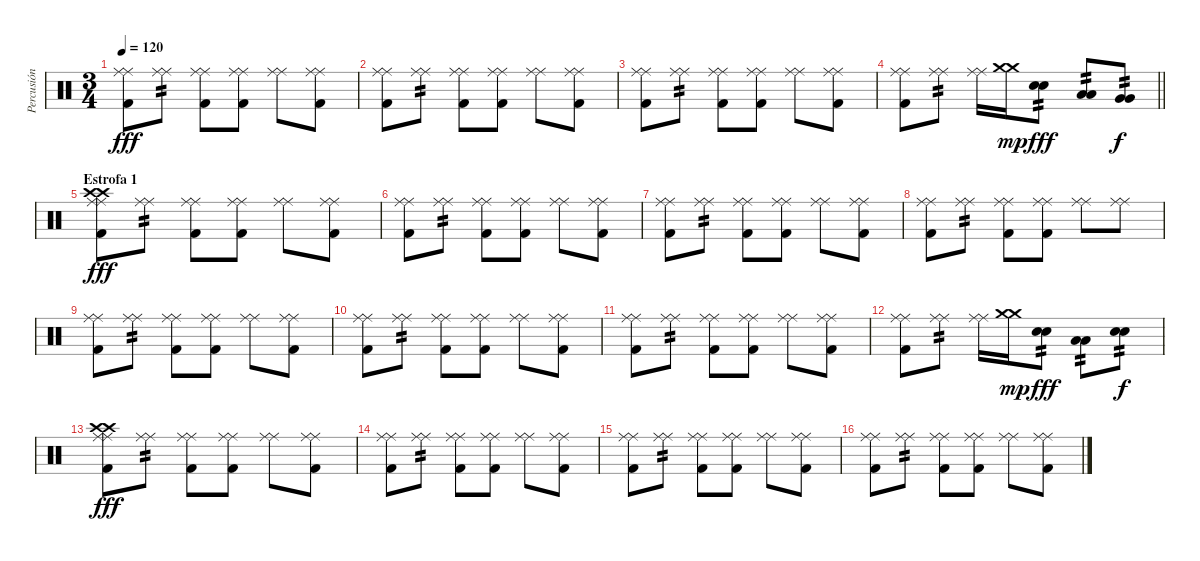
\track ("Percusión" "Percusión") {instrument percussion}
\staff {score}
\articulation defaults
\ts (3 4)
\tempo 120
\clef neutral
\ks c
("Ride (middle)" "Ride (middle)" "Kick (hit) 2").8{dy fff} ("Ride (middle)" "Ride (middle)").8{tp 2} ("Ride (middle)" "Ride (middle)" "Kick (hit) 2").8 ("Ride (middle)" "Ride (middle)" "Kick (hit) 2").8 ("Ride (middle)" "Ride (middle)").8 ("Ride (middle)" "Ride (middle)" "Kick (hit) 2").8 |
("Ride (middle)" "Ride (middle)" "Kick (hit) 2").8 ("Ride (middle)" "Ride (middle)").8{tp 2} ("Ride (middle)" "Ride (middle)" "Kick (hit) 2").8 ("Ride (middle)" "Ride (middle)" "Kick (hit) 2").8 ("Ride (middle)" "Ride (middle)").8 ("Ride (middle)" "Ride (middle)" "Kick (hit) 2").8 |
("Ride (middle)" "Ride (middle)" "Kick (hit) 2").8 ("Ride (middle)" "Ride (middle)").8{tp 2} ("Ride (middle)" "Ride (middle)" "Kick (hit) 2").8 ("Ride (middle)" "Ride (middle)" "Kick (hit) 2").8 ("Ride (middle)" "Ride (middle)").8 ("Ride (middle)" "Ride (middle)" "Kick (hit) 2").8 |
\barLineRight lightlight
("Ride (middle)" "Ride (middle)" "Kick (hit) 2").8 ("Ride (middle)" "Ride (middle)").8{tp 2} ("Ride (middle)" "Ride (middle)").16 ("Crash medium (hit)" "Crash medium (hit)").16{dy mp} ("Electric Snare (hit)" "Electric Snare (hit)").8{tp 2 dy fff} ("Low Tom (hit)" "Low Tom (hit)").8{tp 2} ("Very Low Tom (hit)" "Very Low Tom (hit)").8{tp 2 dy f} |
\section ("" "Estrofa 1")
("Ride (middle)" "Ride (middle)" "Crash high (hit)" "Crash high (hit)" "Kick (hit) 2").8{dy fff} ("Ride (middle)" "Ride (middle)").8{tp 2} ("Ride (middle)" "Ride (middle)" "Kick (hit) 2").8 ("Ride (middle)" "Ride (middle)" "Kick (hit) 2").8 ("Ride (middle)" "Ride (middle)").8 ("Ride (middle)" "Ride (middle)" "Kick (hit) 2").8 |
("Ride (middle)" "Ride (middle)" "Kick (hit) 2").8 ("Ride (middle)" "Ride (middle)").8{tp 2} ("Ride (middle)" "Ride (middle)" "Kick (hit) 2").8 ("Ride (middle)" "Ride (middle)" "Kick (hit) 2").8 ("Ride (middle)" "Ride (middle)").8 ("Ride (middle)" "Ride (middle)" "Kick (hit) 2").8 |
("Ride (middle)" "Ride (middle)" "Kick (hit) 2").8 ("Ride (middle)" "Ride (middle)").8{tp 2} ("Ride (middle)" "Ride (middle)" "Kick (hit) 2").8 ("Ride (middle)" "Ride (middle)" "Kick (hit) 2").8 ("Ride (middle)" "Ride (middle)").8 ("Ride (middle)" "Ride (middle)" "Kick (hit) 2").8 |
("Ride (middle)" "Ride (middle)" "Kick (hit) 2").8 ("Ride (middle)" "Ride (middle)").8{tp 2} ("Ride (middle)" "Ride (middle)" "Kick (hit) 2").8 ("Ride (middle)" "Ride (middle)" "Kick (hit) 2").8 ("Ride (middle)" "Ride (middle)").8 ("Ride (middle)" "Ride (middle)").8 |
("Ride (middle)" "Ride (middle)" "Kick (hit) 2").8 ("Ride (middle)" "Ride (middle)").8{tp 2} ("Ride (middle)" "Ride (middle)" "Kick (hit) 2").8 ("Ride (middle)" "Ride (middle)" "Kick (hit) 2").8 ("Ride (middle)" "Ride (middle)").8 ("Ride (middle)" "Ride (middle)" "Kick (hit) 2").8 |
("Ride (middle)" "Ride (middle)" "Kick (hit) 2").8 ("Ride (middle)" "Ride (middle)").8{tp 2} ("Ride (middle)" "Ride (middle)" "Kick (hit) 2").8 ("Ride (middle)" "Ride (middle)" "Kick (hit) 2").8 ("Ride (middle)" "Ride (middle)").8 ("Ride (middle)" "Ride (middle)" "Kick (hit) 2").8 |
("Ride (middle)" "Ride (middle)" "Kick (hit) 2").8 ("Ride (middle)" "Ride (middle)").8{tp 2} ("Ride (middle)" "Ride (middle)" "Kick (hit) 2").8 ("Ride (middle)" "Ride (middle)" "Kick (hit) 2").8 ("Ride (middle)" "Ride (middle)").8 ("Ride (middle)" "Ride (middle)" "Kick (hit) 2").8 |
("Ride (middle)" "Ride (middle)" "Kick (hit) 2").8 ("Ride (middle)" "Ride (middle)").8{tp 2} ("Ride (middle)" "Ride (middle)").16 ("Crash medium (hit)" "Crash medium (hit)").16{dy mp} ("Electric Snare (hit)" "Electric Snare (hit)").8{tp 2 dy fff} ("Low Tom (hit)" "Low Tom (hit)").8{tp 2} ("Electric Snare (hit)" "Electric Snare (hit)").8{tp 2 dy f} |
("Ride (middle)" "Ride (middle)" "Crash high (hit)" "Crash high (hit)" "Kick (hit) 2").8{dy fff} ("Ride (middle)" "Ride (middle)").8{tp 2} ("Ride (middle)" "Ride (middle)" "Kick (hit) 2").8 ("Ride (middle)" "Ride (middle)" "Kick (hit) 2").8 ("Ride (middle)" "Ride (middle)").8 ("Ride (middle)" "Ride (middle)" "Kick (hit) 2").8 |
("Ride (middle)" "Ride (middle)" "Kick (hit) 2").8 ("Ride (middle)" "Ride (middle)").8{tp 2} ("Ride (middle)" "Ride (middle)" "Kick (hit) 2").8 ("Ride (middle)" "Ride (middle)" "Kick (hit) 2").8 ("Ride (middle)" "Ride (middle)").8 ("Ride (middle)" "Ride (middle)" "Kick (hit) 2").8 |
("Ride (middle)" "Ride (middle)" "Kick (hit) 2").8 ("Ride (middle)" "Ride (middle)").8{tp 2} ("Ride (middle)" "Ride (middle)" "Kick (hit) 2").8 ("Ride (middle)" "Ride (middle)" "Kick (hit) 2").8 ("Ride (middle)" "Ride (middle)").8 ("Ride (middle)" "Ride (middle)" "Kick (hit) 2").8 |
("Ride (middle)" "Ride (middle)" "Kick (hit) 2").8 ("Ride (middle)" "Ride (middle)").8{tp 2} ("Ride (middle)" "Ride (middle)" "Kick (hit) 2").8 ("Ride (middle)" "Ride (middle)" "Kick (hit) 2").8 ("Ride (middle)" "Ride (middle)").8 ("Ride (middle)" "Ride (middle)" "Kick (hit) 2").8
